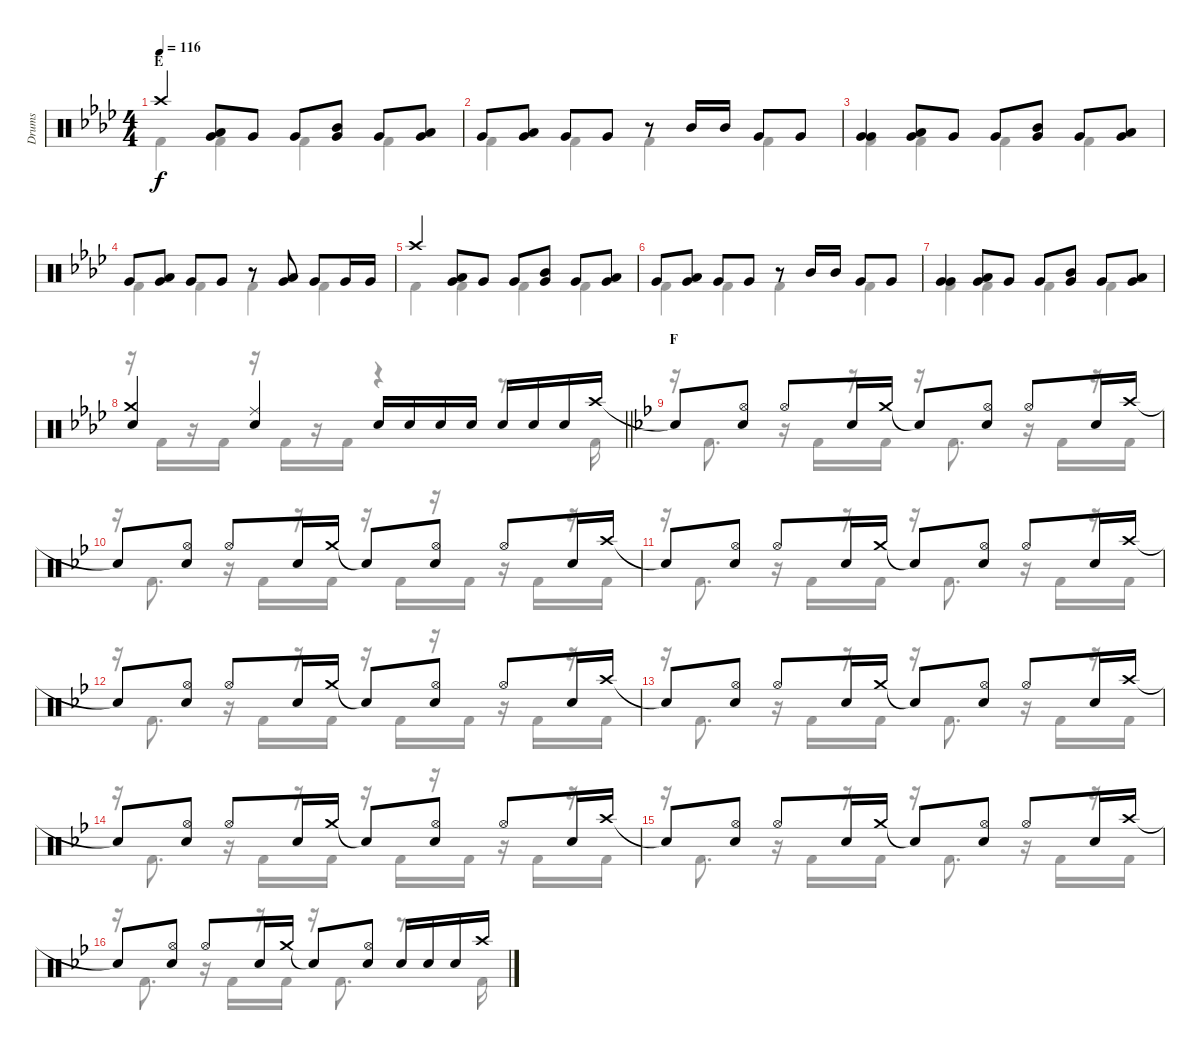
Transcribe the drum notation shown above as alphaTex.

\track ("Drums" "Drums") {instrument percussion}
\staff {score}
\articulation defaults
\voice
\ts (4 4)
\section ("" "E")
\tempo 116
\clef neutral
\ks ab "Crash high (hit)".4{dy f}
("Low Tom (hit)" "Very Low Tom (hit)").8 "Very Low Tom (hit)".8 "Very Low Tom (hit)".8 ("Mid Tom (hit)" "Very Low Tom (hit)").8 "Very Low Tom (hit)".8 ("Low Tom (hit)" "Very Low Tom (hit)").8 |
"Very Low Tom (hit)".8 ("Low Tom (hit)" "Very Low Tom (hit)").8 "Very Low Tom (hit)".8 "Very Low Tom (hit)".8 r.8 "Mid Tom (hit)".16 "Mid Tom (hit)".16 "Very Low Tom (hit)".8 "Very Low Tom (hit)".8 |
("Very Low Tom (hit)" "Very Low Tom (hit)").4 ("Low Tom (hit)" "Very Low Tom (hit)").8 "Very Low Tom (hit)".8 "Very Low Tom (hit)".8 ("Mid Tom (hit)" "Very Low Tom (hit)").8 "Very Low Tom (hit)".8 ("Low Tom (hit)" "Very Low Tom (hit)").8 |
"Very Low Tom (hit)".8 ("Low Tom (hit)" "Very Low Tom (hit)").8 "Very Low Tom (hit)".8 "Very Low Tom (hit)".8 r.8 ("Low Tom (hit)" "Very Low Tom (hit)").8 "Very Low Tom (hit)".8 "Very Low Tom (hit)".16 "Very Low Tom (hit)".16 |
"Crash high (hit)".4 ("Low Tom (hit)" "Very Low Tom (hit)").8 "Very Low Tom (hit)".8 "Very Low Tom (hit)".8 ("Mid Tom (hit)" "Very Low Tom (hit)").8 "Very Low Tom (hit)".8 ("Low Tom (hit)" "Very Low Tom (hit)").8 |
"Very Low Tom (hit)".8 ("Low Tom (hit)" "Very Low Tom (hit)").8 "Very Low Tom (hit)".8 "Very Low Tom (hit)".8 r.8 "Mid Tom (hit)".16 "Mid Tom (hit)".16 "Very Low Tom (hit)".8 "Very Low Tom (hit)".8 |
("Very Low Tom (hit)" "Very Low Tom (hit)").4 ("Low Tom (hit)" "Very Low Tom (hit)").8 "Very Low Tom (hit)".8 "Very Low Tom (hit)".8 ("Mid Tom (hit)" "Very Low Tom (hit)").8 "Very Low Tom (hit)".8 ("Low Tom (hit)" "Very Low Tom (hit)").8 |
\barLineRight lightlight
("Crash medium (hit)" "Snare (hit) 2").4 ("Ride (middle)" "Snare (hit) 2").4 "Snare (hit) 2".16 "Snare (hit) 2".16 "Snare (hit) 2".16 "Snare (hit) 2".16 "Snare (hit) 2".16 "Snare (hit) 2".16 "Snare (hit) 2".16 "Crash high (hit)".16 |
\section ("" "F")
\ks bb "Snare (hit)"{t}.8
("Hi-Hat (open)" "Snare (hit) 2").8 "Hi-Hat (open)".8 "Snare (hit) 2".16 "Crash medium (hit)".16 "Snare (hit)"{t}.8 ("Hi-Hat (open)" "Snare (hit) 2").8 "Hi-Hat (open)".8 "Snare (hit) 2".16 "Crash high (hit)".16 |
"Snare (hit)"{t}.8 ("Hi-Hat (open)" "Snare (hit) 2").8 "Hi-Hat (open)".8 "Snare (hit) 2".16 "Crash medium (hit)".16 "Snare (hit)"{t}.8 ("Hi-Hat (open)" "Snare (hit) 2").8 "Hi-Hat (open)".8 "Snare (hit) 2".16 "Crash high (hit)".16 |
"Snare (hit)"{t}.8 ("Hi-Hat (open)" "Snare (hit) 2").8 "Hi-Hat (open)".8 "Snare (hit) 2".16 "Crash medium (hit)".16 "Snare (hit)"{t}.8 ("Hi-Hat (open)" "Snare (hit) 2").8 "Hi-Hat (open)".8 "Snare (hit) 2".16 "Crash high (hit)".16 |
"Snare (hit)"{t}.8 ("Hi-Hat (open)" "Snare (hit) 2").8 "Hi-Hat (open)".8 "Snare (hit) 2".16 "Crash medium (hit)".16 "Snare (hit)"{t}.8 ("Hi-Hat (open)" "Snare (hit) 2").8 "Hi-Hat (open)".8 "Snare (hit) 2".16 "Crash high (hit)".16 |
"Snare (hit)"{t}.8 ("Hi-Hat (open)" "Snare (hit) 2").8 "Hi-Hat (open)".8 "Snare (hit) 2".16 "Crash medium (hit)".16 "Snare (hit)"{t}.8 ("Hi-Hat (open)" "Snare (hit) 2").8 "Hi-Hat (open)".8 "Snare (hit) 2".16 "Crash high (hit)".16 |
"Snare (hit)"{t}.8 ("Hi-Hat (open)" "Snare (hit) 2").8 "Hi-Hat (open)".8 "Snare (hit) 2".16 "Crash medium (hit)".16 "Snare (hit)"{t}.8 ("Hi-Hat (open)" "Snare (hit) 2").8 "Hi-Hat (open)".8 "Snare (hit) 2".16 "Crash high (hit)".16 |
"Snare (hit)"{t}.8 ("Hi-Hat (open)" "Snare (hit) 2").8 "Hi-Hat (open)".8 "Snare (hit) 2".16 "Crash medium (hit)".16 "Snare (hit)"{t}.8 ("Hi-Hat (open)" "Snare (hit) 2").8 "Hi-Hat (open)".8 "Snare (hit) 2".16 "Crash high (hit)".16 |
"Snare (hit)"{t}.8 ("Hi-Hat (open)" "Snare (hit) 2").8 "Hi-Hat (open)".8 "Snare (hit) 2".16 "Crash medium (hit)".16 "Snare (hit)"{t}.8 ("Hi-Hat (open)" "Snare (hit) 2").8 "Snare (hit) 2".16 "Snare (hit) 2".16 "Snare (hit) 2".16 "Crash high (hit)".16
\voice
\clef neutral
\ottava regular
\simile none
\ks ab "Kick (hit) 2".4{dy f} "Kick (hit) 2".4 "Kick (hit) 2".4 "Kick (hit) 2".4
|
"Kick (hit) 2".4 "Kick (hit) 2".4 "Kick (hit) 2".4 "Kick (hit) 2".4 |
"Kick (hit) 2".4 "Kick (hit) 2".4 "Kick (hit) 2".4 "Kick (hit) 2".4 |
"Kick (hit) 2".4 "Kick (hit) 2".4 "Kick (hit) 2".4 "Kick (hit) 2".4 |
"Kick (hit) 2".4 "Kick (hit) 2".4 "Kick (hit) 2".4 "Kick (hit) 2".4 |
"Kick (hit) 2".4 "Kick (hit) 2".4 "Kick (hit) 2".4 "Kick (hit) 2".4 |
"Kick (hit) 2".4 "Kick (hit) 2".4 "Kick (hit) 2".4 "Kick (hit) 2".4 |
\barLineRight lightlight
r.16 "Kick (hit) 2".16 r.16 "Kick (hit) 2".16 r.16 "Kick (hit) 2".16 r.16 "Kick (hit) 2".16 r.4 r.8{d} "Kick (hit) 2".16 |
\ks bb
r.16 "Kick (hit) 2".8{d} r.16 "Kick (hit) 2".16 r.16 "Kick (hit) 2".16 r.16 "Kick (hit) 2".8{d} r.16 "Kick (hit) 2".16 r.16 "Kick (hit) 2".16 |
r.16 "Kick (hit) 2".8{d} r.16 "Kick (hit) 2".16 r.16 "Kick (hit) 2".16 r.16 "Kick (hit) 2".16 r.16 "Kick (hit) 2".16 r.16 "Kick (hit) 2".16 r.16 "Kick (hit) 2".16 |
r.16 "Kick (hit) 2".8{d} r.16 "Kick (hit) 2".16 r.16 "Kick (hit) 2".16 r.16 "Kick (hit) 2".8{d} r.16 "Kick (hit) 2".16 r.16 "Kick (hit) 2".16 |
r.16 "Kick (hit) 2".8{d} r.16 "Kick (hit) 2".16 r.16 "Kick (hit) 2".16 r.16 "Kick (hit) 2".16 r.16 "Kick (hit) 2".16 r.16 "Kick (hit) 2".16 r.16 "Kick (hit) 2".16 |
r.16 "Kick (hit) 2".8{d} r.16 "Kick (hit) 2".16 r.16 "Kick (hit) 2".16 r.16 "Kick (hit) 2".8{d} r.16 "Kick (hit) 2".16 r.16 "Kick (hit) 2".16 |
r.16 "Kick (hit) 2".8{d} r.16 "Kick (hit) 2".16 r.16 "Kick (hit) 2".16 r.16 "Kick (hit) 2".16 r.16 "Kick (hit) 2".16 r.16 "Kick (hit) 2".16 r.16 "Kick (hit) 2".16 |
r.16 "Kick (hit) 2".8{d} r.16 "Kick (hit) 2".16 r.16 "Kick (hit) 2".16 r.16 "Kick (hit) 2".8{d} r.16 "Kick (hit) 2".16 r.16 "Kick (hit) 2".16 |
r.16 "Kick (hit) 2".8{d} r.16 "Kick (hit) 2".16 r.16 "Kick (hit) 2".16 r.16 "Kick (hit) 2".8{d} r.8{d} "Kick (hit) 2".16
